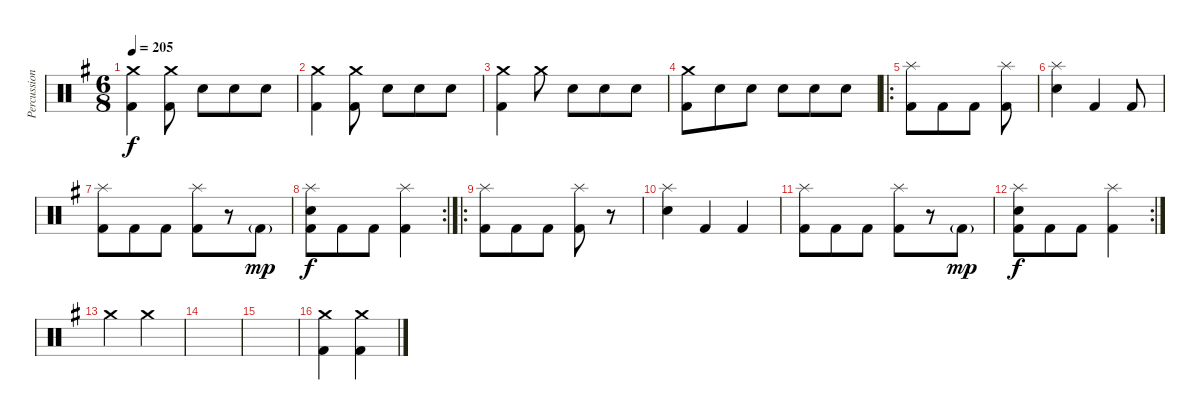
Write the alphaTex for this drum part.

\track ("Percussion" "Percussion") {instrument percussion}
\staff {score}
\articulation defaults
\ts (6 8)
\tempo 205
\clef neutral
\ks g
("Crash medium (hit)" "Kick (hit) 2").4{dy f} ("Crash medium (hit)" "Kick (hit) 2").8 "Electric Snare (hit)".8 "Electric Snare (hit)".8 "Electric Snare (hit)".8 |
("Crash medium (hit)" "Kick (hit) 2").4 ("Crash medium (hit)" "Kick (hit) 2").8 "Electric Snare (hit)".8 "Electric Snare (hit)".8 "Electric Snare (hit)".8 |
("Crash medium (hit)" "Kick (hit) 2").4 "Crash medium (hit)".8 "Electric Snare (hit)".8 "Electric Snare (hit)".8 "Electric Snare (hit)".8 |
("Crash medium (hit)" "Kick (hit) 2").8 "Electric Snare (hit)".8 "Electric Snare (hit)".8 "Electric Snare (hit)".8 "Electric Snare (hit)".8 "Electric Snare (hit)".8 |
\ro
("Splash (hit)" "Kick (hit) 2").8 "Kick (hit) 2".8 "Kick (hit) 2".8 ("Splash (hit)" "Kick (hit) 2").8 |
("Splash (hit)" "Electric Snare (hit)").4 "Kick (hit) 2".4 "Kick (hit) 2".8 |
("Splash (hit)" "Kick (hit) 2").8 "Kick (hit) 2".8 "Kick (hit) 2".8 ("Splash (hit)" "Kick (hit) 2").8 r.8 "Kick (hit) 2"{g}.8{dy mp} |
\rc 2
("Electric Snare (hit)" "Kick (hit) 2" "Splash (hit)").8{dy f} "Kick (hit) 2".8 "Kick (hit) 2".8 ("Splash (hit)" "Kick (hit) 2").4 |
\ro
("Splash (hit)" "Kick (hit) 2").8 "Kick (hit) 2".8 "Kick (hit) 2".8 ("Splash (hit)" "Kick (hit) 2").8 r.8 |
("Splash (hit)" "Electric Snare (hit)").4 "Kick (hit) 2".4 "Kick (hit) 2".4 |
("Splash (hit)" "Kick (hit) 2").8 "Kick (hit) 2".8 "Kick (hit) 2".8 ("Splash (hit)" "Kick (hit) 2").8 r.8 "Kick (hit) 2"{g}.8{dy mp} |
\rc 2
("Electric Snare (hit)" "Kick (hit) 2" "Splash (hit)").8{dy f} "Kick (hit) 2".8 "Kick (hit) 2".8 ("Splash (hit)" "Kick (hit) 2").4 |
"Crash medium (hit)".4 "Crash medium (hit)".4 |
|
|
("Crash medium (hit)" "Kick (hit) 2").4 ("Crash medium (hit)" "Kick (hit) 2").4
